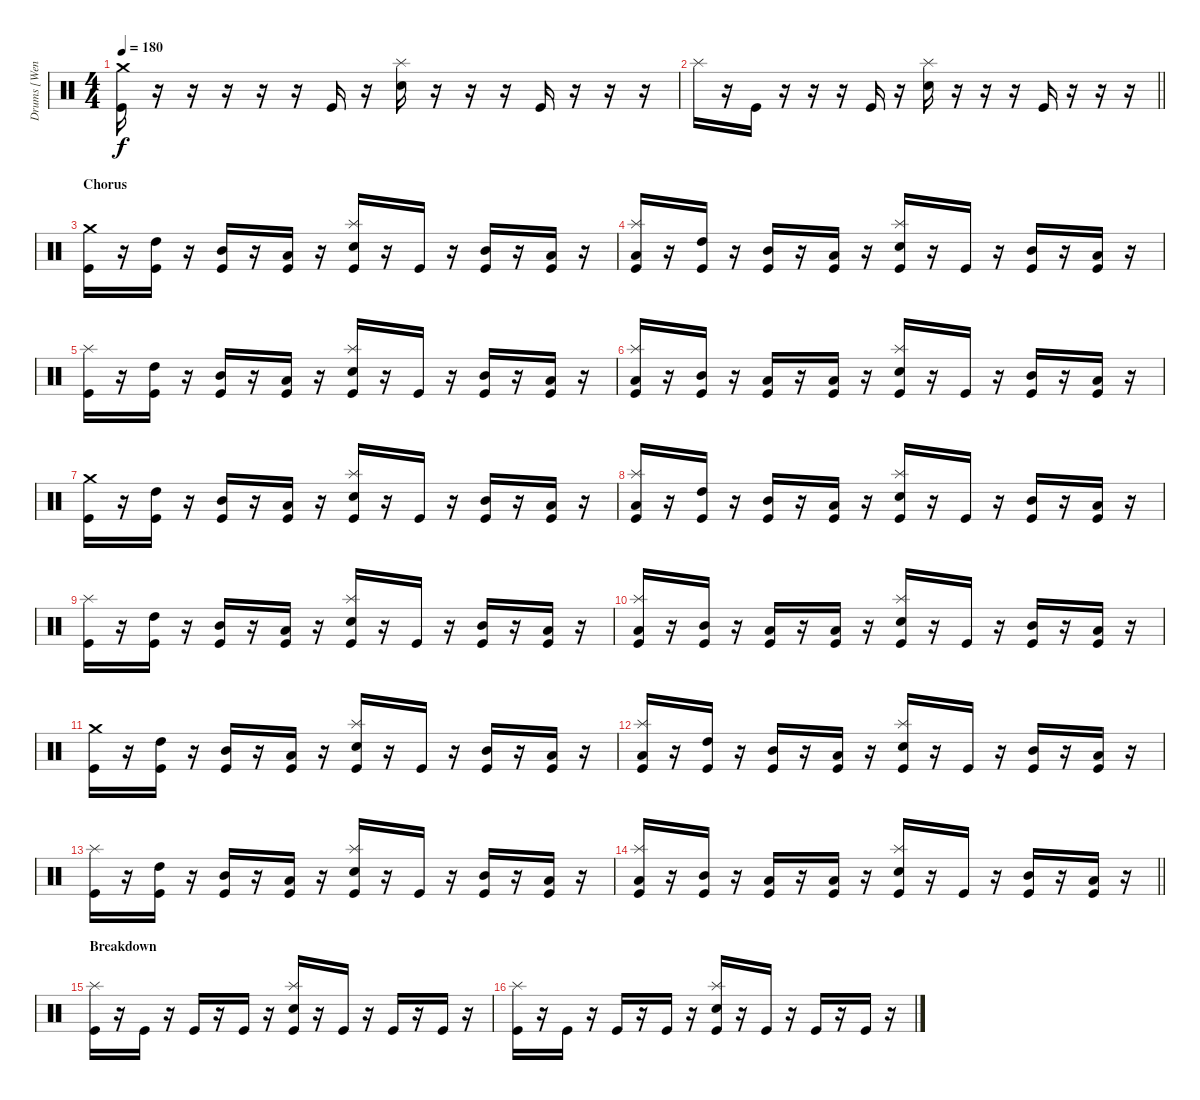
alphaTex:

\track ("Drums [Wengren]" "Drums [Wen") {instrument percussion}
\staff {score}
\articulation defaults
\ts (4 4)
\tempo 180
\clef neutral
\ks c
("Crash medium (hit)" "Kick (hit)").16{dy f} r.16 r.16 r.16 r.16 r.16 "Kick (hit)".16 r.16 ("Splash (hit)" "Electric Snare (hit)").16 r.16 r.16 r.16 "Kick (hit)".16 r.16 r.16 r.16 |
\barLineRight lightlight "Splash (hit)".16
r.16 "Kick (hit)".16 r.16 r.16 r.16 "Kick (hit)".16 r.16 ("Splash (hit)" "Electric Snare (hit)").16 r.16 r.16 r.16 "Kick (hit)".16 r.16 r.16 r.16 |
\section ("" "Chorus")
("Crash medium (hit)" "Kick (hit)").16 r.16 ("High Tom (hit)" "Kick (hit)").16 r.16 ("Mid Tom (hit)" "Kick (hit)").16 r.16 ("Low Tom (hit)" "Kick (hit)").16 r.16 ("Splash (hit)" "Electric Snare (hit)" "Kick (hit)").16 r.16 "Kick (hit)".16 r.16 ("Mid Tom (hit)" "Kick (hit)").16 r.16 ("Low Tom (hit)" "Kick (hit)").16 r.16 |
("Splash (hit)" "Low Floor Tom (hit)" "Kick (hit)").16 r.16 ("High Tom (hit)" "Kick (hit)").16 r.16 ("Mid Tom (hit)" "Kick (hit)").16 r.16 ("Low Tom (hit)" "Kick (hit)").16 r.16 ("Splash (hit)" "Electric Snare (hit)" "Kick (hit)").16 r.16 "Kick (hit)".16 r.16 ("Mid Tom (hit)" "Kick (hit)").16 r.16 ("Low Tom (hit)" "Kick (hit)").16 r.16 |
("Splash (hit)" "Kick (hit)").16 r.16 ("High Tom (hit)" "Kick (hit)").16 r.16 ("Mid Tom (hit)" "Kick (hit)").16 r.16 ("Low Tom (hit)" "Kick (hit)").16 r.16 ("Splash (hit)" "Electric Snare (hit)" "Kick (hit)").16 r.16 "Kick (hit)".16 r.16 ("Mid Tom (hit)" "Kick (hit)").16 r.16 ("Low Tom (hit)" "Kick (hit)").16 r.16 |
("Splash (hit)" "Low Floor Tom (hit)" "Kick (hit)").16 r.16 ("Mid Tom (hit)" "Kick (hit)").16 r.16 ("Low Tom (hit)" "Kick (hit)").16 r.16 ("Low Floor Tom (hit)" "Kick (hit)").16 r.16 ("Splash (hit)" "Electric Snare (hit)" "Kick (hit)").16 r.16 "Kick (hit)".16 r.16 ("Mid Tom (hit)" "Kick (hit)").16 r.16 ("Low Floor Tom (hit)" "Kick (hit)").16 r.16 |
("Crash medium (hit)" "Kick (hit)").16 r.16 ("High Tom (hit)" "Kick (hit)").16 r.16 ("Mid Tom (hit)" "Kick (hit)").16 r.16 ("Low Tom (hit)" "Kick (hit)").16 r.16 ("Splash (hit)" "Electric Snare (hit)" "Kick (hit)").16 r.16 "Kick (hit)".16 r.16 ("Mid Tom (hit)" "Kick (hit)").16 r.16 ("Low Tom (hit)" "Kick (hit)").16 r.16 |
("Splash (hit)" "Low Floor Tom (hit)" "Kick (hit)").16 r.16 ("High Tom (hit)" "Kick (hit)").16 r.16 ("Mid Tom (hit)" "Kick (hit)").16 r.16 ("Low Tom (hit)" "Kick (hit)").16 r.16 ("Splash (hit)" "Electric Snare (hit)" "Kick (hit)").16 r.16 "Kick (hit)".16 r.16 ("Mid Tom (hit)" "Kick (hit)").16 r.16 ("Low Tom (hit)" "Kick (hit)").16 r.16 |
("Splash (hit)" "Kick (hit)").16 r.16 ("High Tom (hit)" "Kick (hit)").16 r.16 ("Mid Tom (hit)" "Kick (hit)").16 r.16 ("Low Tom (hit)" "Kick (hit)").16 r.16 ("Splash (hit)" "Electric Snare (hit)" "Kick (hit)").16 r.16 "Kick (hit)".16 r.16 ("Mid Tom (hit)" "Kick (hit)").16 r.16 ("Low Tom (hit)" "Kick (hit)").16 r.16 |
("Splash (hit)" "Low Floor Tom (hit)" "Kick (hit)").16 r.16 ("Mid Tom (hit)" "Kick (hit)").16 r.16 ("Low Tom (hit)" "Kick (hit)").16 r.16 ("Low Floor Tom (hit)" "Kick (hit)").16 r.16 ("Splash (hit)" "Electric Snare (hit)" "Kick (hit)").16 r.16 "Kick (hit)".16 r.16 ("Mid Tom (hit)" "Kick (hit)").16 r.16 ("Low Floor Tom (hit)" "Kick (hit)").16 r.16 |
("Crash medium (hit)" "Kick (hit)").16 r.16 ("High Tom (hit)" "Kick (hit)").16 r.16 ("Mid Tom (hit)" "Kick (hit)").16 r.16 ("Low Tom (hit)" "Kick (hit)").16 r.16 ("Splash (hit)" "Electric Snare (hit)" "Kick (hit)").16 r.16 "Kick (hit)".16 r.16 ("Mid Tom (hit)" "Kick (hit)").16 r.16 ("Low Tom (hit)" "Kick (hit)").16 r.16 |
("Splash (hit)" "Low Floor Tom (hit)" "Kick (hit)").16 r.16 ("High Tom (hit)" "Kick (hit)").16 r.16 ("Mid Tom (hit)" "Kick (hit)").16 r.16 ("Low Tom (hit)" "Kick (hit)").16 r.16 ("Splash (hit)" "Electric Snare (hit)" "Kick (hit)").16 r.16 "Kick (hit)".16 r.16 ("Mid Tom (hit)" "Kick (hit)").16 r.16 ("Low Tom (hit)" "Kick (hit)").16 r.16 |
("Splash (hit)" "Kick (hit)").16 r.16 ("High Tom (hit)" "Kick (hit)").16 r.16 ("Mid Tom (hit)" "Kick (hit)").16 r.16 ("Low Tom (hit)" "Kick (hit)").16 r.16 ("Splash (hit)" "Electric Snare (hit)" "Kick (hit)").16 r.16 "Kick (hit)".16 r.16 ("Mid Tom (hit)" "Kick (hit)").16 r.16 ("Low Tom (hit)" "Kick (hit)").16 r.16 |
\barLineRight lightlight
("Splash (hit)" "Low Floor Tom (hit)" "Kick (hit)").16 r.16 ("Mid Tom (hit)" "Kick (hit)").16 r.16 ("Low Tom (hit)" "Kick (hit)").16 r.16 ("Low Floor Tom (hit)" "Kick (hit)").16 r.16 ("Splash (hit)" "Electric Snare (hit)" "Kick (hit)").16 r.16 "Kick (hit)".16 r.16 ("Mid Tom (hit)" "Kick (hit)").16 r.16 ("Low Floor Tom (hit)" "Kick (hit)").16 r.16 |
\section ("" "Breakdown")
("Splash (hit)" "Kick (hit)").16 r.16 "Kick (hit)".16 r.16 "Kick (hit)".16 r.16 "Kick (hit)".16 r.16 ("Splash (hit)" "Electric Snare (hit)" "Kick (hit)").16 r.16 "Kick (hit)".16 r.16 "Kick (hit)".16 r.16 "Kick (hit)".16 r.16 |
("Splash (hit)" "Kick (hit)").16 r.16 "Kick (hit)".16 r.16 "Kick (hit)".16 r.16 "Kick (hit)".16 r.16 ("Splash (hit)" "Electric Snare (hit)" "Kick (hit)").16 r.16 "Kick (hit)".16 r.16 "Kick (hit)".16 r.16 "Kick (hit)".16 r.16
